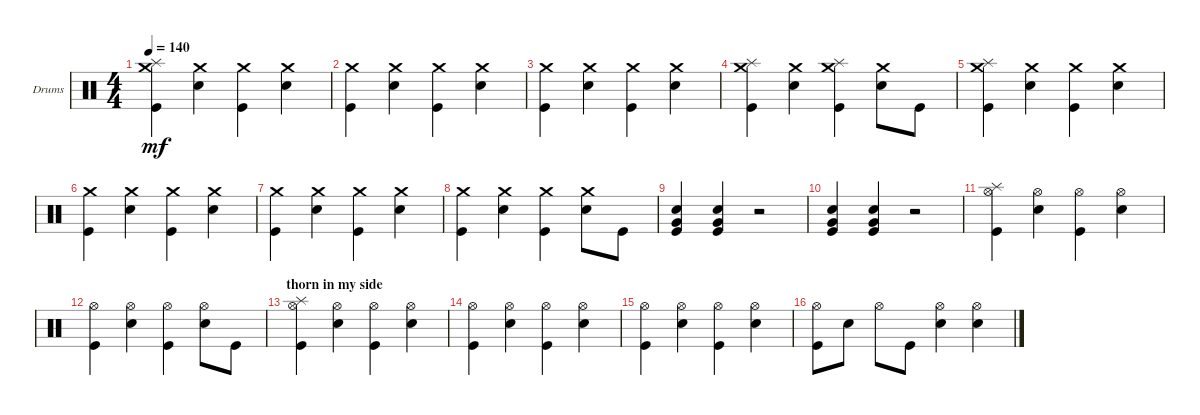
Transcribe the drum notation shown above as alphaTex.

\defaultSystemsLayout 4
\bracketExtendMode groupsimilarinstruments
\firstSystemTrackNameOrientation horizontal
\otherSystemsTrackNameOrientation horizontal
\track ("Drumkit" "Drums") {instrument percussion}
\staff {score}
\articulation defaults
\ts (4 4)
\tempo 140
\clef neutral
\ks c
("Splash (hit)" "Kick (hit)" "Crash medium (hit)").4{dy mf} ("Snare (hit) 2" "Crash medium (hit)").4 ("Kick (hit)" "Crash medium (hit)").4 ("Snare (hit) 2" "Crash medium (hit)").4 |
("Kick (hit)" "Crash medium (hit)").4 ("Snare (hit) 2" "Crash medium (hit)").4 ("Kick (hit)" "Crash medium (hit)").4 ("Snare (hit) 2" "Crash medium (hit)").4 |
("Kick (hit)" "Crash medium (hit)").4 ("Snare (hit) 2" "Crash medium (hit)").4 ("Kick (hit)" "Crash medium (hit)").4 ("Snare (hit) 2" "Crash medium (hit)").4 |
("Kick (hit)" "Crash medium (hit)" "Splash (hit)").4 ("Snare (hit) 2" "Crash medium (hit)").4 ("Kick (hit)" "Crash medium (hit)" "Splash (hit)").4 ("Snare (hit) 2" "Crash medium (hit)").8 "Kick (hit)".8 |
("Splash (hit)" "Kick (hit)" "Crash medium (hit)").4 ("Snare (hit) 2" "Crash medium (hit)").4 ("Kick (hit)" "Crash medium (hit)").4 ("Snare (hit) 2" "Crash medium (hit)").4 |
("Kick (hit)" "Crash medium (hit)").4 ("Snare (hit) 2" "Crash medium (hit)").4 ("Kick (hit)" "Crash medium (hit)").4 ("Snare (hit) 2" "Crash medium (hit)").4 |
("Kick (hit)" "Crash medium (hit)").4 ("Snare (hit) 2" "Crash medium (hit)").4 ("Kick (hit)" "Crash medium (hit)").4 ("Snare (hit) 2" "Crash medium (hit)").4 |
("Kick (hit)" "Crash medium (hit)").4 ("Snare (hit) 2" "Crash medium (hit)").4 ("Kick (hit)" "Crash medium (hit)").4 ("Snare (hit) 2" "Crash medium (hit)").8 "Kick (hit)".8 |
("Kick (hit)" "Snare (hit) 2" "Very Low Tom (hit)").4 ("Snare (hit) 2" "Kick (hit)" "Very Low Tom (hit)").4 r.2 |
("Kick (hit)" "Snare (hit) 2" "Very Low Tom (hit)").4 ("Snare (hit) 2" "Kick (hit)" "Very Low Tom (hit)").4 r.2 |
("Splash (hit)" "Hi-Hat (open)" "Kick (hit)").4 ("Hi-Hat (open)" "Snare (hit) 2").4 ("Kick (hit)" "Hi-Hat (open)").4 ("Snare (hit) 2" "Hi-Hat (open)").4 |
("Hi-Hat (open)" "Kick (hit)").4 ("Hi-Hat (open)" "Snare (hit) 2").4 ("Kick (hit)" "Hi-Hat (open)").4 ("Snare (hit) 2" "Hi-Hat (open)").8 "Kick (hit)".8 |
\section ("" "thorn in my side")
("Splash (hit)" "Hi-Hat (open)" "Kick (hit)").4 ("Hi-Hat (open)" "Snare (hit) 2").4 ("Kick (hit)" "Hi-Hat (open)").4 ("Snare (hit) 2" "Hi-Hat (open)").4 |
("Hi-Hat (open)" "Kick (hit)").4 ("Hi-Hat (open)" "Snare (hit) 2").4 ("Kick (hit)" "Hi-Hat (open)").4 ("Snare (hit) 2" "Hi-Hat (open)").4 |
("Kick (hit)" "Hi-Hat (open)").4 ("Hi-Hat (open)" "Snare (hit) 2").4 ("Kick (hit)" "Hi-Hat (open)").4 ("Snare (hit) 2" "Hi-Hat (open)").4 |
("Hi-Hat (open)" "Kick (hit)").8 "Snare (hit) 2".8 "Hi-Hat (open)".8 "Kick (hit)".8 ("Snare (hit) 2" "Hi-Hat (open)").4 ("Snare (hit) 2" "Hi-Hat (open)").4
